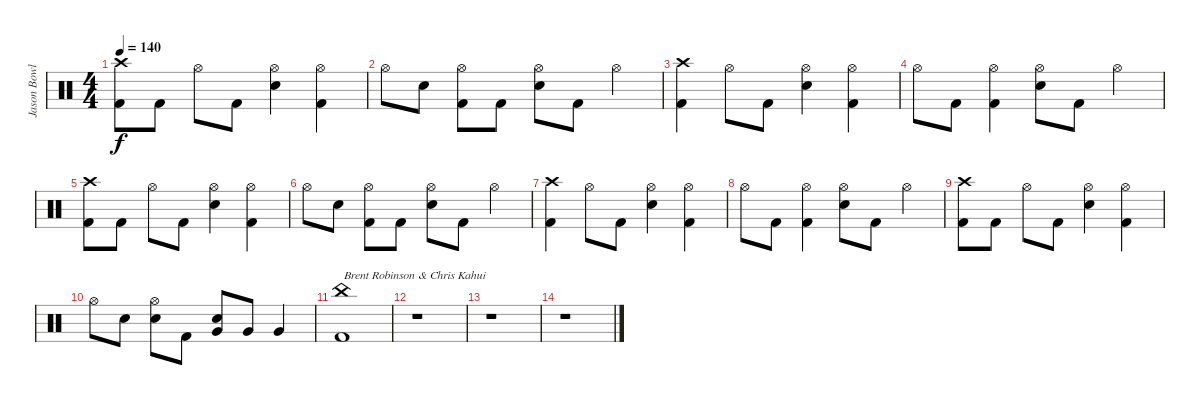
\track ("Jason Bowld" "Jason Bowl") {instrument percussion}
\staff {score}
\articulation defaults
\ts (4 4)
\tempo 140
\clef neutral
\ks c
("Crash high (hit)" "Kick (hit) 2").8{dy f} "Kick (hit) 2".8 "Hi-Hat (open)".8 "Kick (hit) 2".8 ("Hi-Hat (open)" "Snare (hit) 2").4 ("Hi-Hat (open)" "Kick (hit) 2").4 |
"Hi-Hat (open)".8 "Snare (hit) 2".8 ("Hi-Hat (open)" "Kick (hit) 2").8 "Kick (hit) 2".8 ("Hi-Hat (open)" "Snare (hit) 2").8 "Kick (hit) 2".8 "Hi-Hat (open)".4 |
("Crash high (hit)" "Kick (hit) 2").4 "Hi-Hat (open)".8 "Kick (hit) 2".8 ("Hi-Hat (open)" "Snare (hit) 2").4 ("Hi-Hat (open)" "Kick (hit) 2").4 |
"Hi-Hat (open)".8 "Kick (hit) 2".8 ("Hi-Hat (open)" "Kick (hit) 2").4 ("Hi-Hat (open)" "Snare (hit) 2").8 "Kick (hit) 2".8 "Hi-Hat (open)".4 |
("Crash high (hit)" "Kick (hit) 2").8 "Kick (hit) 2".8 "Hi-Hat (open)".8 "Kick (hit) 2".8 ("Hi-Hat (open)" "Snare (hit) 2").4 ("Hi-Hat (open)" "Kick (hit) 2").4 |
"Hi-Hat (open)".8 "Snare (hit) 2".8 ("Hi-Hat (open)" "Kick (hit) 2").8 "Kick (hit) 2".8 ("Hi-Hat (open)" "Snare (hit) 2").8 "Kick (hit) 2".8 "Hi-Hat (open)".4 |
("Crash high (hit)" "Kick (hit) 2").4 "Hi-Hat (open)".8 "Kick (hit) 2".8 ("Hi-Hat (open)" "Snare (hit) 2").4 ("Hi-Hat (open)" "Kick (hit) 2").4 |
"Hi-Hat (open)".8 "Kick (hit) 2".8 ("Hi-Hat (open)" "Kick (hit) 2").4 ("Hi-Hat (open)" "Snare (hit) 2").8 "Kick (hit) 2".8 "Hi-Hat (open)".4 |
("Crash high (hit)" "Kick (hit) 2").8 "Kick (hit) 2".8 "Hi-Hat (open)".8 "Kick (hit) 2".8 ("Hi-Hat (open)" "Snare (hit) 2").4 ("Hi-Hat (open)" "Kick (hit) 2").4 |
"Hi-Hat (open)".8 "Snare (hit) 2".8 ("Hi-Hat (open)" "Snare (hit) 2").8 "Kick (hit) 2".8 ("Very Low Tom (hit)" "Snare (hit) 2").8 "Very Low Tom (hit)".8 "Very Low Tom (hit)".4 |
("China (hit)" "Kick (hit) 2").1{txt "Brent Robinson & Chris Kahui"} |
r.1 |
r.1 |
r.1
